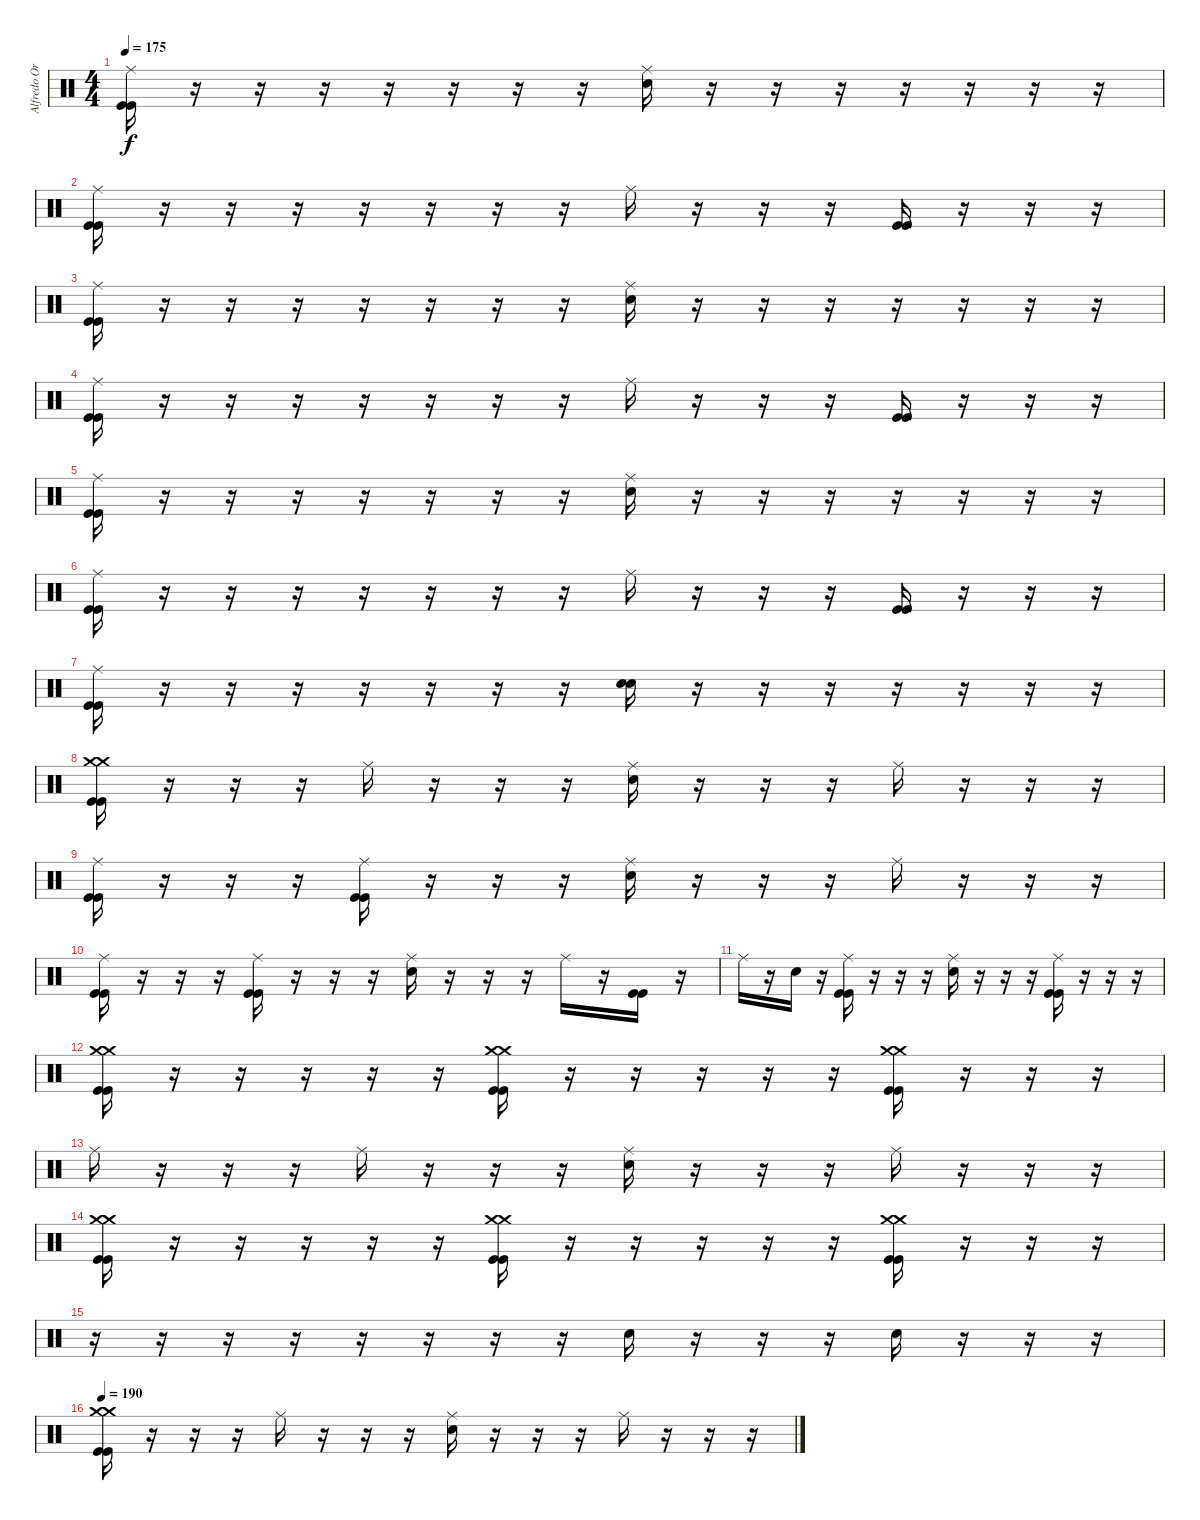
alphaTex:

\track ("Alfredo Ortiz" "Alfredo Or") {instrument percussion}
\staff {score}
\articulation defaults
\ts (4 4)
\tempo 175
\clef neutral
\ks c
("Ride (middle)" "Kick (hit)" "Kick (hit)").16{dy f} r.16 r.16 r.16 r.16 r.16 r.16 r.16 ("Ride (middle)" "Snare (hit) 2").16 r.16 r.16 r.16 r.16 r.16 r.16 r.16 |
("Ride (middle)" "Kick (hit)" "Kick (hit)").16 r.16 r.16 r.16 r.16 r.16 r.16 r.16 "Ride (middle)".16 r.16 r.16 r.16 ("Kick (hit)" "Kick (hit)").16 r.16 r.16 r.16 |
("Ride (middle)" "Kick (hit)" "Kick (hit)").16 r.16 r.16 r.16 r.16 r.16 r.16 r.16 ("Ride (middle)" "Snare (hit) 2").16 r.16 r.16 r.16 r.16 r.16 r.16 r.16 |
("Ride (middle)" "Kick (hit)" "Kick (hit)").16 r.16 r.16 r.16 r.16 r.16 r.16 r.16 "Ride (middle)".16 r.16 r.16 r.16 ("Kick (hit)" "Kick (hit)").16 r.16 r.16 r.16 |
("Ride (middle)" "Kick (hit)" "Kick (hit)").16 r.16 r.16 r.16 r.16 r.16 r.16 r.16 ("Ride (middle)" "Snare (hit) 2").16 r.16 r.16 r.16 r.16 r.16 r.16 r.16 |
("Ride (middle)" "Kick (hit)" "Kick (hit)").16 r.16 r.16 r.16 r.16 r.16 r.16 r.16 "Ride (middle)".16 r.16 r.16 r.16 ("Kick (hit)" "Kick (hit)").16 r.16 r.16 r.16 |
("Ride (middle)" "Kick (hit)" "Kick (hit)").16 r.16 r.16 r.16 r.16 r.16 r.16 r.16 ("Snare (hit) 2" "Snare (hit) 2").16 r.16 r.16 r.16 r.16 r.16 r.16 r.16 |
("Crash medium (hit)" "Crash medium (hit)" "Kick (hit)" "Kick (hit)").16 r.16 r.16 r.16 "Ride (middle)".16 r.16 r.16 r.16 ("Ride (middle)" "Snare (hit) 2").16 r.16 r.16 r.16 "Ride (middle)".16 r.16 r.16 r.16 |
("Ride (middle)" "Kick (hit)" "Kick (hit)").16 r.16 r.16 r.16 ("Ride (middle)" "Kick (hit)" "Kick (hit)").16 r.16 r.16 r.16 ("Ride (middle)" "Snare (hit) 2").16 r.16 r.16 r.16 "Ride (middle)".16 r.16 r.16 r.16 |
("Ride (middle)" "Kick (hit)" "Kick (hit)").16 r.16 r.16 r.16 ("Ride (middle)" "Kick (hit)" "Kick (hit)").16 r.16 r.16 r.16 ("Ride (middle)" "Snare (hit) 2").16 r.16 r.16 r.16 "Ride (middle)".16 r.16 ("Kick (hit)" "Kick (hit)").16 r.16 |
"Ride (middle)".16 r.16 "Snare (hit) 2".16 r.16 ("Ride (middle)" "Kick (hit)" "Kick (hit)").16 r.16 r.16 r.16 ("Ride (middle)" "Snare (hit) 2").16 r.16 r.16 r.16 ("Ride (middle)" "Kick (hit)" "Kick (hit)").16 r.16 r.16 r.16 |
("Crash medium (hit)" "Crash medium (hit)" "Kick (hit)" "Kick (hit)").16 r.16 r.16 r.16 r.16 r.16 ("Crash medium (hit)" "Crash medium (hit)" "Kick (hit)" "Kick (hit)").16 r.16 r.16 r.16 r.16 r.16 ("Crash medium (hit)" "Crash medium (hit)" "Kick (hit)" "Kick (hit)").16 r.16 r.16 r.16 |
"Ride (middle)".16 r.16 r.16 r.16 "Ride (middle)".16 r.16 r.16 r.16 ("Ride (middle)" "Snare (hit) 2").16 r.16 r.16 r.16 "Ride (middle)".16 r.16 r.16 r.16 |
("Crash medium (hit)" "Crash medium (hit)" "Kick (hit)" "Kick (hit)").16 r.16 r.16 r.16 r.16 r.16 ("Crash medium (hit)" "Crash medium (hit)" "Kick (hit)" "Kick (hit)").16 r.16 r.16 r.16 r.16 r.16 ("Crash medium (hit)" "Crash medium (hit)" "Kick (hit)" "Kick (hit)").16 r.16 r.16 r.16 |
r.16 r.16 r.16 r.16 r.16 r.16 r.16 r.16 "Snare (hit) 2".16 r.16 r.16 r.16 "Snare (hit) 2".16 r.16 r.16 r.16 |
\tempo 190
("Crash medium (hit)" "Crash medium (hit)" "Kick (hit)" "Kick (hit)").16 r.16 r.16 r.16 "Ride (middle)".16 r.16 r.16 r.16 ("Ride (middle)" "Snare (hit) 2").16 r.16 r.16 r.16 "Ride (middle)".16 r.16 r.16 r.16
